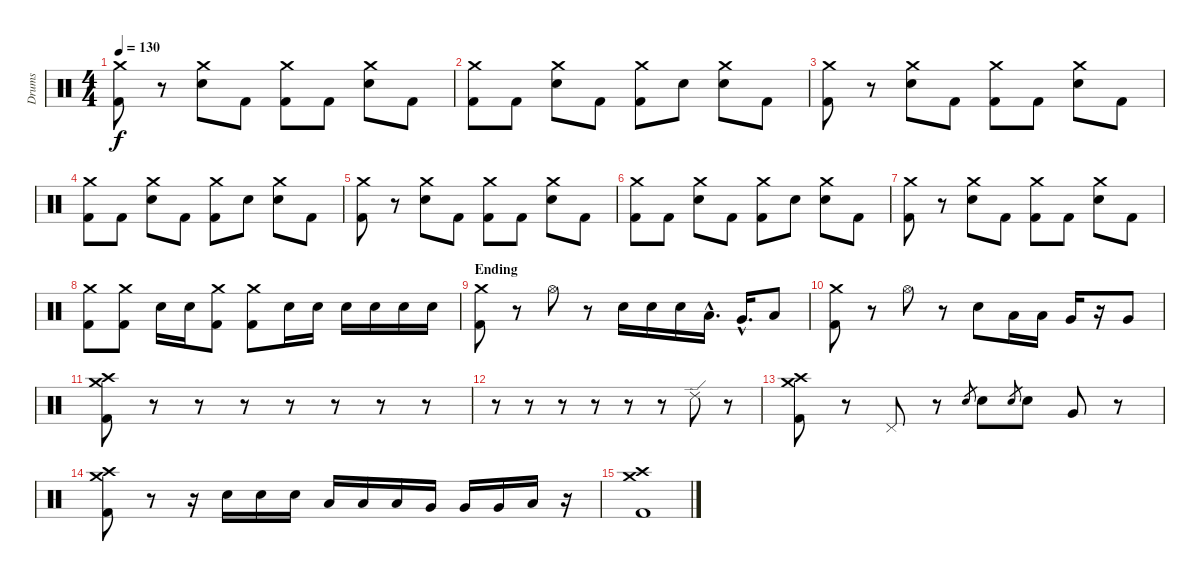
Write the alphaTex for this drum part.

\track ("Drums" "Drums") {instrument percussion}
\staff {score}
\articulation defaults
\ts (4 4)
\tempo 130
\clef neutral
\ks c
("Crash medium (hit)" "Kick (hit) 2").8{dy f} r.8 ("Crash medium (hit)" "Electric Snare (hit)").8 "Kick (hit) 2".8 ("Crash medium (hit)" "Kick (hit) 2").8 "Kick (hit) 2".8 ("Crash medium (hit)" "Electric Snare (hit)").8 "Kick (hit) 2".8 |
("Crash medium (hit)" "Kick (hit) 2").8 "Kick (hit) 2".8 ("Crash medium (hit)" "Electric Snare (hit)").8 "Kick (hit) 2".8 ("Crash medium (hit)" "Kick (hit) 2").8 "Electric Snare (hit)".8 ("Crash medium (hit)" "Electric Snare (hit)").8 "Kick (hit) 2".8 |
("Crash medium (hit)" "Kick (hit) 2").8 r.8 ("Crash medium (hit)" "Electric Snare (hit)").8 "Kick (hit) 2".8 ("Crash medium (hit)" "Kick (hit) 2").8 "Kick (hit) 2".8 ("Crash medium (hit)" "Electric Snare (hit)").8 "Kick (hit) 2".8 |
("Crash medium (hit)" "Kick (hit) 2").8 "Kick (hit) 2".8 ("Crash medium (hit)" "Electric Snare (hit)").8 "Kick (hit) 2".8 ("Crash medium (hit)" "Kick (hit) 2").8 "Electric Snare (hit)".8 ("Crash medium (hit)" "Electric Snare (hit)").8 "Kick (hit) 2".8 |
("Crash medium (hit)" "Kick (hit) 2").8 r.8 ("Crash medium (hit)" "Electric Snare (hit)").8 "Kick (hit) 2".8 ("Crash medium (hit)" "Kick (hit) 2").8 "Kick (hit) 2".8 ("Crash medium (hit)" "Electric Snare (hit)").8 "Kick (hit) 2".8 |
("Crash medium (hit)" "Kick (hit) 2").8 "Kick (hit) 2".8 ("Crash medium (hit)" "Electric Snare (hit)").8 "Kick (hit) 2".8 ("Crash medium (hit)" "Kick (hit) 2").8 "Electric Snare (hit)".8 ("Crash medium (hit)" "Electric Snare (hit)").8 "Kick (hit) 2".8 |
("Crash medium (hit)" "Kick (hit) 2").8 r.8 ("Crash medium (hit)" "Electric Snare (hit)").8 "Kick (hit) 2".8 ("Crash medium (hit)" "Kick (hit) 2").8 "Kick (hit) 2".8 ("Crash medium (hit)" "Electric Snare (hit)").8 "Kick (hit) 2".8 |
("Crash medium (hit)" "Kick (hit) 2").8 ("Crash medium (hit)" "Kick (hit) 2").8 "Electric Snare (hit)".16 "Electric Snare (hit)".16 ("Crash medium (hit)" "Kick (hit) 2").8 ("Crash medium (hit)" "Kick (hit) 2").8 "Electric Snare (hit)".16 "Electric Snare (hit)".16 "Electric Snare (hit)".16 "Electric Snare (hit)".16 "Electric Snare (hit)".16 "Electric Snare (hit)".16 |
\section ("" "Ending")
("Crash medium (hit)" "Kick (hit) 2").8 r.8 "Hi-Hat (open)".8 r.8 "Electric Snare (hit)".16 "Electric Snare (hit)".16 "Electric Snare (hit)".16 "Low Tom (hit)"{hac}.16{d} "Very Low Tom (hit)"{hac}.16{d} "Low Floor Tom (hit)".8 |
("Crash medium (hit)" "Kick (hit) 2").8 r.8 "Hi-Hat (open)".8 r.8 "Electric Snare (hit)".8 "Low Tom (hit)".16 "Low Tom (hit)".16 "Very Low Tom (hit)".16 r.16 "Very Low Tom (hit)".8 |
("Crash medium (hit)" "Crash high (hit)" "Kick (hit) 2").8 r.8 r.8 r.8 r.8 r.8 r.8 r.8 |
r.8 r.8 r.8 r.8 r.8 r.8 "Ride (edge) 2".8 r.8 |
("Crash medium (hit)" "Crash high (hit)" "Kick (hit) 2").8 r.8 "Pedal Hi-Hat (hit)".8 r.8 "Electric Snare (hit)".8{gr} "Electric Snare (hit)".8 "Electric Snare (hit)".8{gr} "Electric Snare (hit)".8 "Very Low Tom (hit)".8 r.8 |
("Crash medium (hit)" "Crash high (hit)" "Kick (hit) 2").8 r.8 r.16 "Electric Snare (hit)".16 "Electric Snare (hit)".16 "Electric Snare (hit)".16 "Low Tom (hit)".16 "Low Tom (hit)".16 "Low Tom (hit)".16 "Very Low Tom (hit)".16 "Very Low Tom (hit)".16 "Very Low Tom (hit)".16 "Low Floor Tom (hit)".16 r.16 |
("Crash medium (hit)" "Crash high (hit)" "Kick (hit) 2").1
